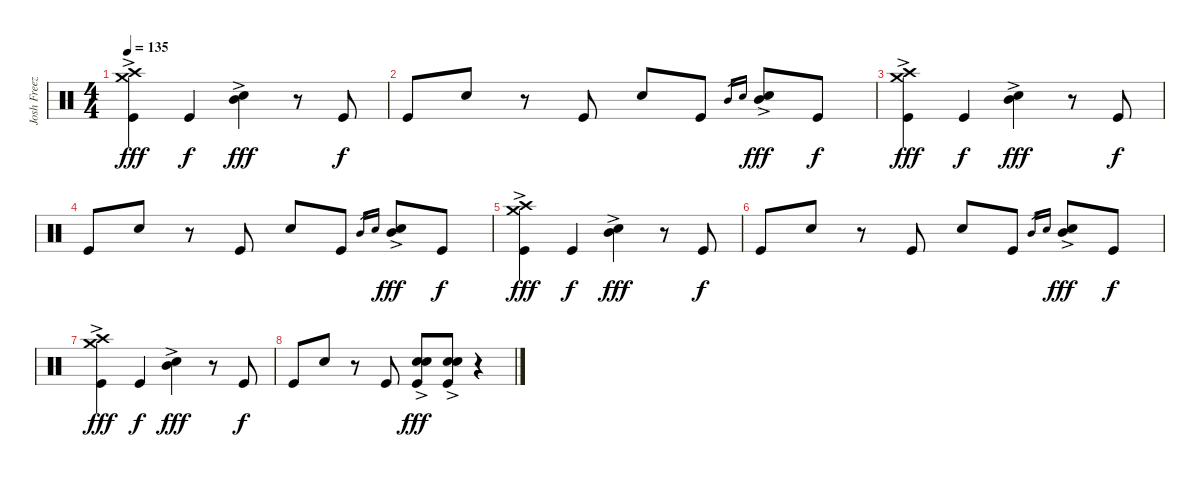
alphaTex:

\track ("Josh Freeze" "Josh Freez") {instrument percussion}
\staff {score}
\articulation defaults
\ts (4 4)
\tempo 135
\clef neutral
\ks c
("Crash high (hit)"{ac} "Crash medium (hit)"{ac} "Kick (hit)").4{dy fff} "Kick (hit)".4{dy f} ("Mid Tom (hit)"{ac} "Electric Snare (hit)"{ac}).4{dy fff} r.8 "Kick (hit)".8{dy f} |
"Kick (hit)".8 "Electric Snare (hit)".8 r.8 "Kick (hit)".8 "Electric Snare (hit)".8 "Kick (hit)".8 "Mid Tom (hit)".16{gr} "Electric Snare (hit)".16{gr} ("Mid Tom (hit)"{ac} "Electric Snare (hit)"{ac}).8{dy fff} "Kick (hit)".8{dy f} |
("Crash high (hit)"{ac} "Crash medium (hit)"{ac} "Kick (hit)").4{dy fff} "Kick (hit)".4{dy f} ("Mid Tom (hit)"{ac} "Electric Snare (hit)"{ac}).4{dy fff} r.8 "Kick (hit)".8{dy f} |
"Kick (hit)".8 "Electric Snare (hit)".8 r.8 "Kick (hit)".8 "Electric Snare (hit)".8 "Kick (hit)".8 "Mid Tom (hit)".16{gr} "Electric Snare (hit)".16{gr} ("Mid Tom (hit)"{ac} "Electric Snare (hit)"{ac}).8{dy fff} "Kick (hit)".8{dy f} |
("Crash high (hit)"{ac} "Crash medium (hit)"{ac} "Kick (hit)").4{dy fff} "Kick (hit)".4{dy f} ("Mid Tom (hit)"{ac} "Electric Snare (hit)"{ac}).4{dy fff} r.8 "Kick (hit)".8{dy f} |
"Kick (hit)".8 "Electric Snare (hit)".8 r.8 "Kick (hit)".8 "Electric Snare (hit)".8 "Kick (hit)".8 "Mid Tom (hit)".16{gr} "Electric Snare (hit)".16{gr} ("Mid Tom (hit)"{ac} "Electric Snare (hit)"{ac}).8{dy fff} "Kick (hit)".8{dy f} |
("Crash high (hit)"{ac} "Crash medium (hit)"{ac} "Kick (hit)").4{dy fff} "Kick (hit)".4{dy f} ("Mid Tom (hit)"{ac} "Electric Snare (hit)"{ac}).4{dy fff} r.8 "Kick (hit)".8{dy f} |
"Kick (hit)".8 "Electric Snare (hit)".8 r.8 "Kick (hit)".8 ("Electric Snare (hit)"{ac} "Electric Snare (hit)"{ac} "Kick (hit)").8{dy fff} ("Electric Snare (hit)"{ac} "Electric Snare (hit)"{ac} "Kick (hit)").8 r.4
